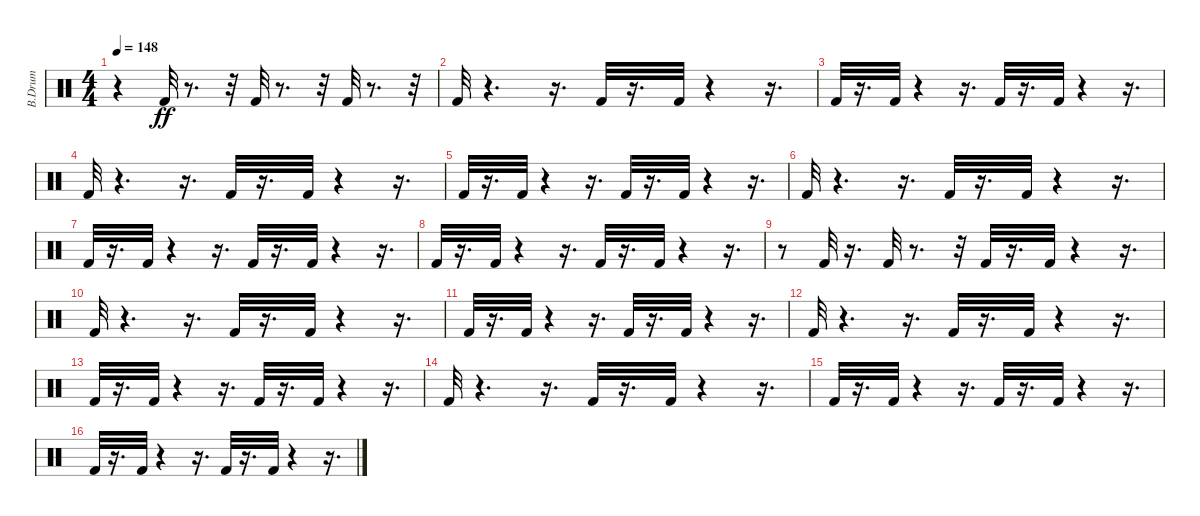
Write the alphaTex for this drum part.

\track ("B.Drum                              " "B.Drum    ") {instrument percussion}
\staff {score}
\articulation defaults
\ts (4 4)
\tempo 148
\clef neutral
\ks c
r.4{dy ff} "Kick (hit) 2".32 r.8{d} r.32 "Kick (hit) 2".32 r.8{d} r.32 "Kick (hit) 2".32 r.8{d} r.32 |
"Kick (hit) 2".32 r.4{d} r.16{d} "Kick (hit) 2".32 r.16{d} "Kick (hit) 2".32 r.4 r.16{d} |
"Kick (hit) 2".32 r.16{d} "Kick (hit) 2".32 r.4 r.16{d} "Kick (hit) 2".32 r.16{d} "Kick (hit) 2".32 r.4 r.16{d} |
"Kick (hit) 2".32 r.4{d} r.16{d} "Kick (hit) 2".32 r.16{d} "Kick (hit) 2".32 r.4 r.16{d} |
"Kick (hit) 2".32 r.16{d} "Kick (hit) 2".32 r.4 r.16{d} "Kick (hit) 2".32 r.16{d} "Kick (hit) 2".32 r.4 r.16{d} |
"Kick (hit) 2".32 r.4{d} r.16{d} "Kick (hit) 2".32 r.16{d} "Kick (hit) 2".32 r.4 r.16{d} |
"Kick (hit) 2".32 r.16{d} "Kick (hit) 2".32 r.4 r.16{d} "Kick (hit) 2".32 r.16{d} "Kick (hit) 2".32 r.4 r.16{d} |
"Kick (hit) 2".32 r.16{d} "Kick (hit) 2".32 r.4 r.16{d} "Kick (hit) 2".32 r.16{d} "Kick (hit) 2".32 r.4 r.16{d} |
r.8 "Kick (hit) 2".32 r.16{d} "Kick (hit) 2".32 r.8{d} r.32 "Kick (hit) 2".32 r.16{d} "Kick (hit) 2".32 r.4 r.16{d} |
"Kick (hit) 2".32 r.4{d} r.16{d} "Kick (hit) 2".32 r.16{d} "Kick (hit) 2".32 r.4 r.16{d} |
"Kick (hit) 2".32 r.16{d} "Kick (hit) 2".32 r.4 r.16{d} "Kick (hit) 2".32 r.16{d} "Kick (hit) 2".32 r.4 r.16{d} |
"Kick (hit) 2".32 r.4{d} r.16{d} "Kick (hit) 2".32 r.16{d} "Kick (hit) 2".32 r.4 r.16{d} |
"Kick (hit) 2".32 r.16{d} "Kick (hit) 2".32 r.4 r.16{d} "Kick (hit) 2".32 r.16{d} "Kick (hit) 2".32 r.4 r.16{d} |
"Kick (hit) 2".32 r.4{d} r.16{d} "Kick (hit) 2".32 r.16{d} "Kick (hit) 2".32 r.4 r.16{d} |
"Kick (hit) 2".32 r.16{d} "Kick (hit) 2".32 r.4 r.16{d} "Kick (hit) 2".32 r.16{d} "Kick (hit) 2".32 r.4 r.16{d} |
"Kick (hit) 2".32 r.16{d} "Kick (hit) 2".32 r.4 r.16{d} "Kick (hit) 2".32 r.16{d} "Kick (hit) 2".32 r.4 r.16{d}
